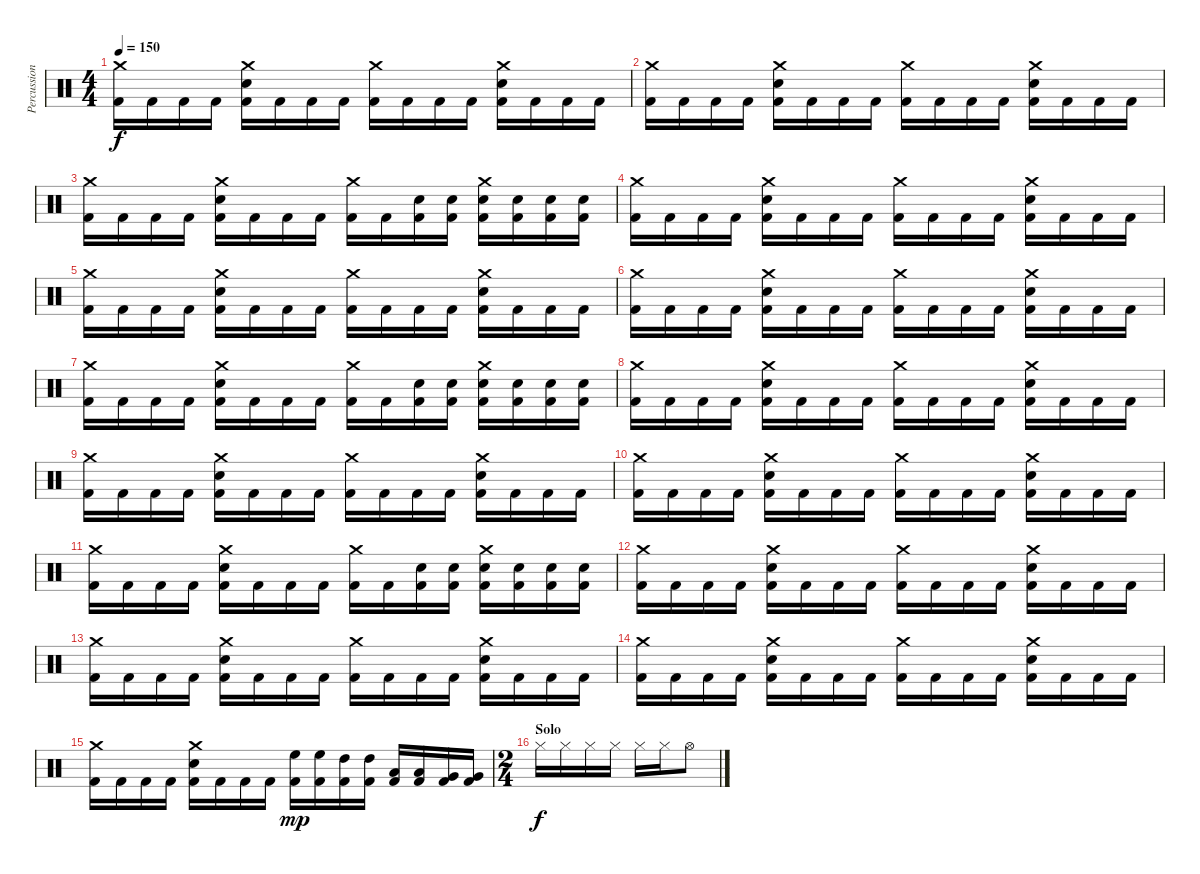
\track ("Percussion" "Percussion") {instrument percussion}
\staff {score}
\articulation defaults
\ts (4 4)
\tempo 150
\clef neutral
\ks c
("Crash medium (hit)" "Kick (hit) 2").16{dy f} "Kick (hit) 2".16 "Kick (hit) 2".16 "Kick (hit) 2".16 ("Crash medium (hit)" "Electric Snare (hit)" "Kick (hit) 2").16 "Kick (hit) 2".16 "Kick (hit) 2".16 "Kick (hit) 2".16 ("Crash medium (hit)" "Kick (hit) 2").16 "Kick (hit) 2".16 "Kick (hit) 2".16 "Kick (hit) 2".16 ("Crash medium (hit)" "Electric Snare (hit)" "Kick (hit) 2").16 "Kick (hit) 2".16 "Kick (hit) 2".16 "Kick (hit) 2".16 |
("Crash medium (hit)" "Kick (hit) 2").16 "Kick (hit) 2".16 "Kick (hit) 2".16 "Kick (hit) 2".16 ("Crash medium (hit)" "Electric Snare (hit)" "Kick (hit) 2").16 "Kick (hit) 2".16 "Kick (hit) 2".16 "Kick (hit) 2".16 ("Crash medium (hit)" "Kick (hit) 2").16 "Kick (hit) 2".16 "Kick (hit) 2".16 "Kick (hit) 2".16 ("Crash medium (hit)" "Electric Snare (hit)" "Kick (hit) 2").16 "Kick (hit) 2".16 "Kick (hit) 2".16 "Kick (hit) 2".16 |
("Crash medium (hit)" "Kick (hit) 2").16 "Kick (hit) 2".16 "Kick (hit) 2".16 "Kick (hit) 2".16 ("Crash medium (hit)" "Electric Snare (hit)" "Kick (hit) 2").16 "Kick (hit) 2".16 "Kick (hit) 2".16 "Kick (hit) 2".16 ("Crash medium (hit)" "Kick (hit) 2").16 "Kick (hit) 2".16 ("Electric Snare (hit)" "Kick (hit) 2").16 ("Electric Snare (hit)" "Kick (hit) 2").16 ("Crash medium (hit)" "Electric Snare (hit)" "Kick (hit) 2").16 ("Electric Snare (hit)" "Kick (hit) 2").16 ("Electric Snare (hit)" "Kick (hit) 2").16 ("Electric Snare (hit)" "Kick (hit) 2").16 |
("Crash medium (hit)" "Kick (hit) 2").16 "Kick (hit) 2".16 "Kick (hit) 2".16 "Kick (hit) 2".16 ("Crash medium (hit)" "Electric Snare (hit)" "Kick (hit) 2").16 "Kick (hit) 2".16 "Kick (hit) 2".16 "Kick (hit) 2".16 ("Crash medium (hit)" "Kick (hit) 2").16 "Kick (hit) 2".16 "Kick (hit) 2".16 "Kick (hit) 2".16 ("Crash medium (hit)" "Electric Snare (hit)" "Kick (hit) 2").16 "Kick (hit) 2".16 "Kick (hit) 2".16 "Kick (hit) 2".16 |
("Crash medium (hit)" "Kick (hit) 2").16 "Kick (hit) 2".16 "Kick (hit) 2".16 "Kick (hit) 2".16 ("Crash medium (hit)" "Electric Snare (hit)" "Kick (hit) 2").16 "Kick (hit) 2".16 "Kick (hit) 2".16 "Kick (hit) 2".16 ("Crash medium (hit)" "Kick (hit) 2").16 "Kick (hit) 2".16 "Kick (hit) 2".16 "Kick (hit) 2".16 ("Crash medium (hit)" "Electric Snare (hit)" "Kick (hit) 2").16 "Kick (hit) 2".16 "Kick (hit) 2".16 "Kick (hit) 2".16 |
("Crash medium (hit)" "Kick (hit) 2").16 "Kick (hit) 2".16 "Kick (hit) 2".16 "Kick (hit) 2".16 ("Crash medium (hit)" "Electric Snare (hit)" "Kick (hit) 2").16 "Kick (hit) 2".16 "Kick (hit) 2".16 "Kick (hit) 2".16 ("Crash medium (hit)" "Kick (hit) 2").16 "Kick (hit) 2".16 "Kick (hit) 2".16 "Kick (hit) 2".16 ("Crash medium (hit)" "Electric Snare (hit)" "Kick (hit) 2").16 "Kick (hit) 2".16 "Kick (hit) 2".16 "Kick (hit) 2".16 |
("Crash medium (hit)" "Kick (hit) 2").16 "Kick (hit) 2".16 "Kick (hit) 2".16 "Kick (hit) 2".16 ("Crash medium (hit)" "Electric Snare (hit)" "Kick (hit) 2").16 "Kick (hit) 2".16 "Kick (hit) 2".16 "Kick (hit) 2".16 ("Crash medium (hit)" "Kick (hit) 2").16 "Kick (hit) 2".16 ("Electric Snare (hit)" "Kick (hit) 2").16 ("Electric Snare (hit)" "Kick (hit) 2").16 ("Crash medium (hit)" "Electric Snare (hit)" "Kick (hit) 2").16 ("Electric Snare (hit)" "Kick (hit) 2").16 ("Electric Snare (hit)" "Kick (hit) 2").16 ("Electric Snare (hit)" "Kick (hit) 2").16 |
("Crash medium (hit)" "Kick (hit) 2").16 "Kick (hit) 2".16 "Kick (hit) 2".16 "Kick (hit) 2".16 ("Crash medium (hit)" "Electric Snare (hit)" "Kick (hit) 2").16 "Kick (hit) 2".16 "Kick (hit) 2".16 "Kick (hit) 2".16 ("Crash medium (hit)" "Kick (hit) 2").16 "Kick (hit) 2".16 "Kick (hit) 2".16 "Kick (hit) 2".16 ("Crash medium (hit)" "Electric Snare (hit)" "Kick (hit) 2").16 "Kick (hit) 2".16 "Kick (hit) 2".16 "Kick (hit) 2".16 |
("Crash medium (hit)" "Kick (hit) 2").16 "Kick (hit) 2".16 "Kick (hit) 2".16 "Kick (hit) 2".16 ("Crash medium (hit)" "Electric Snare (hit)" "Kick (hit) 2").16 "Kick (hit) 2".16 "Kick (hit) 2".16 "Kick (hit) 2".16 ("Crash medium (hit)" "Kick (hit) 2").16 "Kick (hit) 2".16 "Kick (hit) 2".16 "Kick (hit) 2".16 ("Crash medium (hit)" "Electric Snare (hit)" "Kick (hit) 2").16 "Kick (hit) 2".16 "Kick (hit) 2".16 "Kick (hit) 2".16 |
("Crash medium (hit)" "Kick (hit) 2").16 "Kick (hit) 2".16 "Kick (hit) 2".16 "Kick (hit) 2".16 ("Crash medium (hit)" "Electric Snare (hit)" "Kick (hit) 2").16 "Kick (hit) 2".16 "Kick (hit) 2".16 "Kick (hit) 2".16 ("Crash medium (hit)" "Kick (hit) 2").16 "Kick (hit) 2".16 "Kick (hit) 2".16 "Kick (hit) 2".16 ("Crash medium (hit)" "Electric Snare (hit)" "Kick (hit) 2").16 "Kick (hit) 2".16 "Kick (hit) 2".16 "Kick (hit) 2".16 |
("Crash medium (hit)" "Kick (hit) 2").16 "Kick (hit) 2".16 "Kick (hit) 2".16 "Kick (hit) 2".16 ("Crash medium (hit)" "Electric Snare (hit)" "Kick (hit) 2").16 "Kick (hit) 2".16 "Kick (hit) 2".16 "Kick (hit) 2".16 ("Crash medium (hit)" "Kick (hit) 2").16 "Kick (hit) 2".16 ("Electric Snare (hit)" "Kick (hit) 2").16 ("Electric Snare (hit)" "Kick (hit) 2").16 ("Crash medium (hit)" "Electric Snare (hit)" "Kick (hit) 2").16 ("Electric Snare (hit)" "Kick (hit) 2").16 ("Electric Snare (hit)" "Kick (hit) 2").16 ("Electric Snare (hit)" "Kick (hit) 2").16 |
("Crash medium (hit)" "Kick (hit) 2").16 "Kick (hit) 2".16 "Kick (hit) 2".16 "Kick (hit) 2".16 ("Crash medium (hit)" "Electric Snare (hit)" "Kick (hit) 2").16 "Kick (hit) 2".16 "Kick (hit) 2".16 "Kick (hit) 2".16 ("Crash medium (hit)" "Kick (hit) 2").16 "Kick (hit) 2".16 "Kick (hit) 2".16 "Kick (hit) 2".16 ("Crash medium (hit)" "Electric Snare (hit)" "Kick (hit) 2").16 "Kick (hit) 2".16 "Kick (hit) 2".16 "Kick (hit) 2".16 |
("Crash medium (hit)" "Kick (hit) 2").16 "Kick (hit) 2".16 "Kick (hit) 2".16 "Kick (hit) 2".16 ("Crash medium (hit)" "Electric Snare (hit)" "Kick (hit) 2").16 "Kick (hit) 2".16 "Kick (hit) 2".16 "Kick (hit) 2".16 ("Crash medium (hit)" "Kick (hit) 2").16 "Kick (hit) 2".16 "Kick (hit) 2".16 "Kick (hit) 2".16 ("Crash medium (hit)" "Electric Snare (hit)" "Kick (hit) 2").16 "Kick (hit) 2".16 "Kick (hit) 2".16 "Kick (hit) 2".16 |
("Crash medium (hit)" "Kick (hit) 2").16 "Kick (hit) 2".16 "Kick (hit) 2".16 "Kick (hit) 2".16 ("Crash medium (hit)" "Electric Snare (hit)" "Kick (hit) 2").16 "Kick (hit) 2".16 "Kick (hit) 2".16 "Kick (hit) 2".16 ("Crash medium (hit)" "Kick (hit) 2").16 "Kick (hit) 2".16 "Kick (hit) 2".16 "Kick (hit) 2".16 ("Crash medium (hit)" "Electric Snare (hit)" "Kick (hit) 2").16 "Kick (hit) 2".16 "Kick (hit) 2".16 "Kick (hit) 2".16 |
("Crash medium (hit)" "Kick (hit) 2").16 "Kick (hit) 2".16 "Kick (hit) 2".16 "Kick (hit) 2".16 ("Crash medium (hit)" "Electric Snare (hit)" "Kick (hit) 2").16 "Kick (hit) 2".16 "Kick (hit) 2".16 "Kick (hit) 2".16 ("High Floor Tom (hit)" "Kick (hit) 2").16{dy mp} ("High Floor Tom (hit)" "Kick (hit) 2").16 ("High Tom (hit)" "Kick (hit) 2").16 ("High Tom (hit)" "Kick (hit) 2").16 ("Low Tom (hit)" "Kick (hit) 2").16 ("Low Tom (hit)" "Kick (hit) 2").16 ("Very Low Tom (hit)" "Kick (hit) 2").16 ("Very Low Tom (hit)" "Kick (hit) 2").16 |
\ts (2 4)
\section ("" "Solo")
"Hi-Hat (closed)".16{dy f} "Hi-Hat (closed)".16 "Hi-Hat (closed)".16 "Hi-Hat (closed)".16 "Hi-Hat (closed)".16 "Hi-Hat (closed)".16 "Hi-Hat (open)".8
